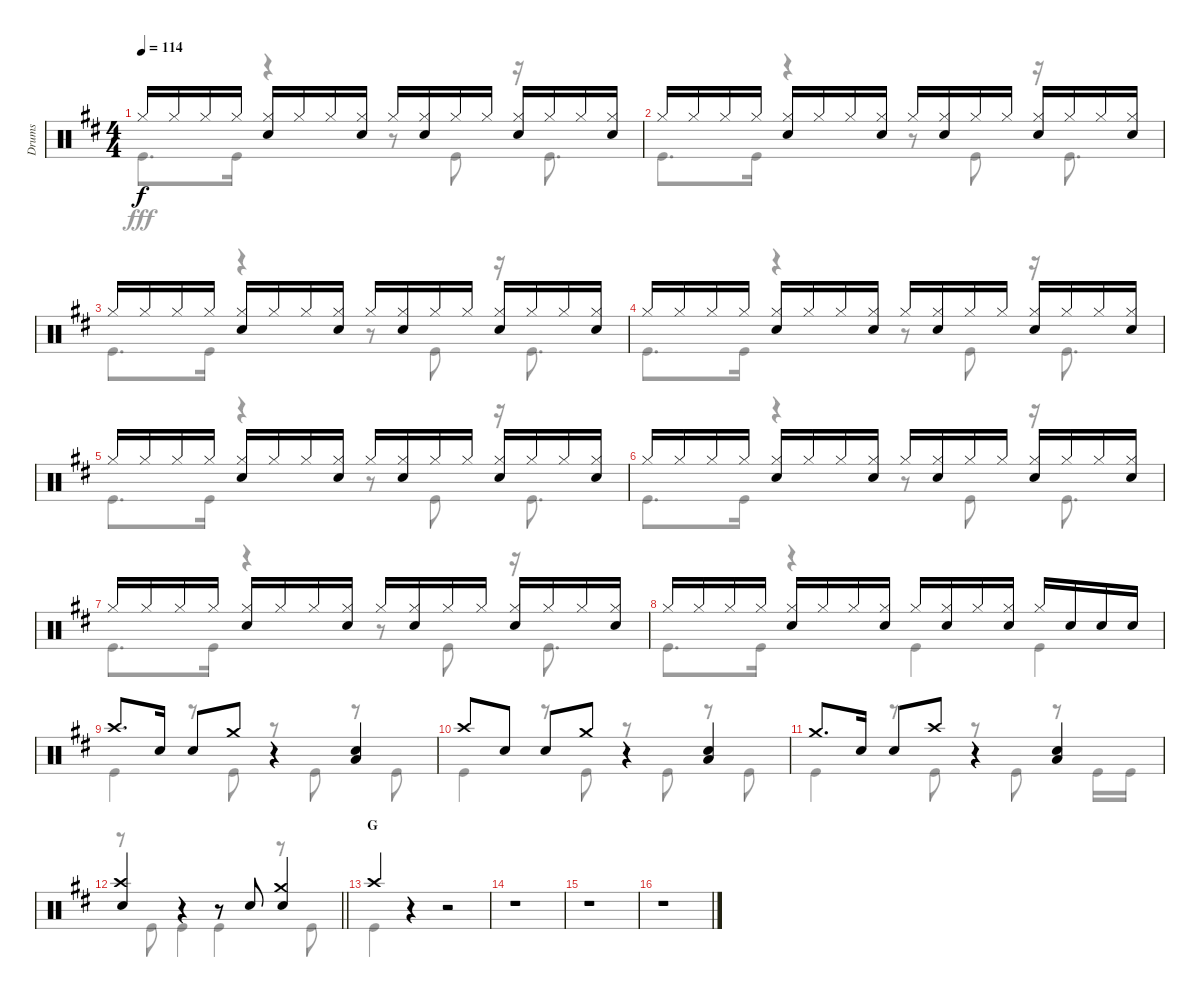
\track ("Drums" "Drums") {instrument percussion}
\staff {score}
\articulation defaults
\voice
\ts (4 4)
\tempo 114
\clef neutral
\ks d "Hi-Hat (closed)".16{dy f} "Hi-Hat (closed)".16 "Hi-Hat (closed)".16 "Hi-Hat (closed)".16
("Hi-Hat (closed)" "Snare (hit) 2").16 "Hi-Hat (closed)".16 "Hi-Hat (closed)".16 ("Hi-Hat (closed)" "Snare (hit) 2").16 "Hi-Hat (closed)".16 ("Hi-Hat (closed)" "Snare (hit) 2").16 "Hi-Hat (closed)".16 "Hi-Hat (closed)".16 ("Hi-Hat (closed)" "Snare (hit) 2").16 "Hi-Hat (closed)".16 "Hi-Hat (closed)".16 ("Hi-Hat (closed)" "Snare (hit) 2").16 |
"Hi-Hat (closed)".16 "Hi-Hat (closed)".16 "Hi-Hat (closed)".16 "Hi-Hat (closed)".16 ("Hi-Hat (closed)" "Snare (hit) 2").16 "Hi-Hat (closed)".16 "Hi-Hat (closed)".16 ("Hi-Hat (closed)" "Snare (hit) 2").16 "Hi-Hat (closed)".16 ("Hi-Hat (closed)" "Snare (hit) 2").16 "Hi-Hat (closed)".16 "Hi-Hat (closed)".16 ("Hi-Hat (closed)" "Snare (hit) 2").16 "Hi-Hat (closed)".16 "Hi-Hat (closed)".16 ("Hi-Hat (closed)" "Snare (hit) 2").16 |
"Hi-Hat (closed)".16 "Hi-Hat (closed)".16 "Hi-Hat (closed)".16 "Hi-Hat (closed)".16 ("Hi-Hat (closed)" "Snare (hit) 2").16 "Hi-Hat (closed)".16 "Hi-Hat (closed)".16 ("Hi-Hat (closed)" "Snare (hit) 2").16 "Hi-Hat (closed)".16 ("Hi-Hat (closed)" "Snare (hit) 2").16 "Hi-Hat (closed)".16 "Hi-Hat (closed)".16 ("Hi-Hat (closed)" "Snare (hit) 2").16 "Hi-Hat (closed)".16 "Hi-Hat (closed)".16 ("Hi-Hat (closed)" "Snare (hit) 2").16 |
"Hi-Hat (closed)".16 "Hi-Hat (closed)".16 "Hi-Hat (closed)".16 "Hi-Hat (closed)".16 ("Hi-Hat (closed)" "Snare (hit) 2").16 "Hi-Hat (closed)".16 "Hi-Hat (closed)".16 ("Hi-Hat (closed)" "Snare (hit) 2").16 "Hi-Hat (closed)".16 ("Hi-Hat (closed)" "Snare (hit) 2").16 "Hi-Hat (closed)".16 "Hi-Hat (closed)".16 ("Hi-Hat (closed)" "Snare (hit) 2").16 "Hi-Hat (closed)".16 "Hi-Hat (closed)".16 ("Hi-Hat (closed)" "Snare (hit) 2").16 |
"Hi-Hat (closed)".16 "Hi-Hat (closed)".16 "Hi-Hat (closed)".16 "Hi-Hat (closed)".16 ("Hi-Hat (closed)" "Snare (hit) 2").16 "Hi-Hat (closed)".16 "Hi-Hat (closed)".16 ("Hi-Hat (closed)" "Snare (hit) 2").16 "Hi-Hat (closed)".16 ("Hi-Hat (closed)" "Snare (hit) 2").16 "Hi-Hat (closed)".16 "Hi-Hat (closed)".16 ("Hi-Hat (closed)" "Snare (hit) 2").16 "Hi-Hat (closed)".16 "Hi-Hat (closed)".16 ("Hi-Hat (closed)" "Snare (hit) 2").16 |
"Hi-Hat (closed)".16 "Hi-Hat (closed)".16 "Hi-Hat (closed)".16 "Hi-Hat (closed)".16 ("Hi-Hat (closed)" "Snare (hit) 2").16 "Hi-Hat (closed)".16 "Hi-Hat (closed)".16 ("Hi-Hat (closed)" "Snare (hit) 2").16 "Hi-Hat (closed)".16 ("Hi-Hat (closed)" "Snare (hit) 2").16 "Hi-Hat (closed)".16 "Hi-Hat (closed)".16 ("Hi-Hat (closed)" "Snare (hit) 2").16 "Hi-Hat (closed)".16 "Hi-Hat (closed)".16 ("Hi-Hat (closed)" "Snare (hit) 2").16 |
"Hi-Hat (closed)".16 "Hi-Hat (closed)".16 "Hi-Hat (closed)".16 "Hi-Hat (closed)".16 ("Hi-Hat (closed)" "Snare (hit) 2").16 "Hi-Hat (closed)".16 "Hi-Hat (closed)".16 ("Hi-Hat (closed)" "Snare (hit) 2").16 "Hi-Hat (closed)".16 ("Hi-Hat (closed)" "Snare (hit) 2").16 "Hi-Hat (closed)".16 "Hi-Hat (closed)".16 ("Hi-Hat (closed)" "Snare (hit) 2").16 "Hi-Hat (closed)".16 "Hi-Hat (closed)".16 ("Hi-Hat (closed)" "Snare (hit) 2").16 |
"Hi-Hat (closed)".16 "Hi-Hat (closed)".16 "Hi-Hat (closed)".16 "Hi-Hat (closed)".16 ("Hi-Hat (closed)" "Snare (hit) 2").16 "Hi-Hat (closed)".16 "Hi-Hat (closed)".16 ("Hi-Hat (closed)" "Snare (hit) 2").16 "Hi-Hat (closed)".16 ("Hi-Hat (closed)" "Snare (hit) 2").16 "Hi-Hat (closed)".16 ("Hi-Hat (closed)" "Snare (hit) 2").16 "Hi-Hat (closed)".16 "Snare (hit) 2".16 "Snare (hit) 2".16 "Snare (hit) 2".16 |
"Crash high (hit)".8{d} "Snare (hit) 2".16 "Snare (hit) 2".8 "Crash medium (hit)".8 r.4 ("Snare (hit) 2" "Low Tom (hit)").4 |
"Crash high (hit)".8 "Snare (hit) 2".8 "Snare (hit) 2".8 "Crash medium (hit)".8 r.4 ("Snare (hit) 2" "Low Tom (hit)").4 |
"Crash medium (hit)".8{d} "Snare (hit) 2".16 "Snare (hit) 2".8 "Crash high (hit)".8 r.4 ("Snare (hit) 2" "Low Tom (hit)").4 |
\barLineRight lightlight
("Crash high (hit)" "Snare (hit) 2").4 r.4 r.8 "Snare (hit) 2".8 ("Crash medium (hit)" "Snare (hit) 2").4 |
\section ("" "G")
"Crash high (hit)".4 r.4 r.2 |
r.1 |
r.1 |
r.1
\voice
\clef neutral
\ottava regular
\simile none
\ks d "Kick (hit)".8{d dy fff} "Kick (hit)".16
r.4 r.8 "Kick (hit)".8 r.16 "Kick (hit)".8{d} |
"Kick (hit)".8{d} "Kick (hit)".16 r.4 r.8 "Kick (hit)".8 r.16 "Kick (hit)".8{d} |
"Kick (hit)".8{d} "Kick (hit)".16 r.4 r.8 "Kick (hit)".8 r.16 "Kick (hit)".8{d} |
"Kick (hit)".8{d} "Kick (hit)".16 r.4 r.8 "Kick (hit)".8 r.16 "Kick (hit)".8{d} |
"Kick (hit)".8{d} "Kick (hit)".16 r.4 r.8 "Kick (hit)".8 r.16 "Kick (hit)".8{d} |
"Kick (hit)".8{d} "Kick (hit)".16 r.4 r.8 "Kick (hit)".8 r.16 "Kick (hit)".8{d} |
"Kick (hit)".8{d} "Kick (hit)".16 r.4 r.8 "Kick (hit)".8 r.16 "Kick (hit)".8{d} |
"Kick (hit)".8{d} "Kick (hit)".16 r.4 "Kick (hit)".4 "Kick (hit)".4 |
"Kick (hit)".4 r.8 "Kick (hit)".8 r.8 "Kick (hit)".8 r.8 "Kick (hit)".8 |
"Kick (hit)".4 r.8 "Kick (hit)".8 r.8 "Kick (hit)".8 r.8 "Kick (hit)".8 |
"Kick (hit)".4 r.8 "Kick (hit)".8 r.8 "Kick (hit)".8 r.8 "Kick (hit)".16 "Kick (hit)".16 |
\barLineRight lightlight
r.8 "Kick (hit)".8 "Kick (hit)".4 "Kick (hit)".4 r.8 "Kick (hit)".8 |
"Kick (hit)".4 r.4 r.2 |
r.1 |
r.1 |
r.1
